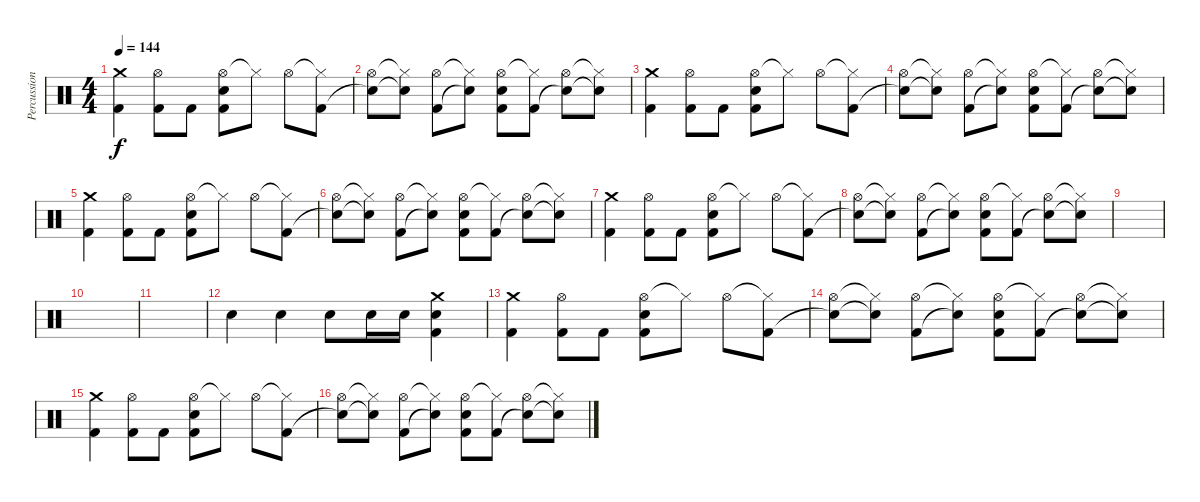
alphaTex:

\track ("Percussion" "Percussion") {instrument percussion}
\staff {score}
\articulation defaults
\ts (4 4)
\tempo 144
\clef neutral
\ks c
("Crash medium (hit)" "Kick (hit) 2").4{dy f} ("Hi-Hat (open)" "Kick (hit) 2").8 "Kick (hit) 2".8 ("Hi-Hat (open)" "Electric Snare (hit)" "Kick (hit) 2").8 "Hi-Hat (closed)"{t}.8 "Hi-Hat (open)".8 ("Hi-Hat (closed)"{t} "Kick (hit) 2").8 |
("Hi-Hat (open)" "Snare (hit)"{t}).8 ("Hi-Hat (closed)"{t} "Snare (hit)"{t}).8 ("Hi-Hat (open)" "Kick (hit) 2").8 ("Hi-Hat (closed)"{t} "Snare (hit)"{t}).8 ("Hi-Hat (open)" "Electric Snare (hit)" "Kick (hit) 2").8 ("Hi-Hat (closed)"{t} "Kick (hit) 2").8 ("Hi-Hat (open)" "Snare (hit)"{t}).8 ("Hi-Hat (closed)"{t} "Snare (hit)"{t}).8 |
("Crash medium (hit)" "Kick (hit) 2").4 ("Hi-Hat (open)" "Kick (hit) 2").8 "Kick (hit) 2".8 ("Hi-Hat (open)" "Electric Snare (hit)" "Kick (hit) 2").8 "Hi-Hat (closed)"{t}.8 "Hi-Hat (open)".8 ("Hi-Hat (closed)"{t} "Kick (hit) 2").8 |
("Hi-Hat (open)" "Snare (hit)"{t}).8 ("Hi-Hat (closed)"{t} "Snare (hit)"{t}).8 ("Hi-Hat (open)" "Kick (hit) 2").8 ("Hi-Hat (closed)"{t} "Snare (hit)"{t}).8 ("Hi-Hat (open)" "Electric Snare (hit)" "Kick (hit) 2").8 ("Hi-Hat (closed)"{t} "Kick (hit) 2").8 ("Hi-Hat (open)" "Snare (hit)"{t}).8 ("Hi-Hat (closed)"{t} "Snare (hit)"{t}).8 |
("Crash medium (hit)" "Kick (hit) 2").4 ("Hi-Hat (open)" "Kick (hit) 2").8 "Kick (hit) 2".8 ("Hi-Hat (open)" "Electric Snare (hit)" "Kick (hit) 2").8 "Hi-Hat (closed)"{t}.8 "Hi-Hat (open)".8 ("Hi-Hat (closed)"{t} "Kick (hit) 2").8 |
("Hi-Hat (open)" "Snare (hit)"{t}).8 ("Hi-Hat (closed)"{t} "Snare (hit)"{t}).8 ("Hi-Hat (open)" "Kick (hit) 2").8 ("Hi-Hat (closed)"{t} "Snare (hit)"{t}).8 ("Hi-Hat (open)" "Electric Snare (hit)" "Kick (hit) 2").8 ("Hi-Hat (closed)"{t} "Kick (hit) 2").8 ("Hi-Hat (open)" "Snare (hit)"{t}).8 ("Hi-Hat (closed)"{t} "Snare (hit)"{t}).8 |
("Crash medium (hit)" "Kick (hit) 2").4 ("Hi-Hat (open)" "Kick (hit) 2").8 "Kick (hit) 2".8 ("Hi-Hat (open)" "Electric Snare (hit)" "Kick (hit) 2").8 "Hi-Hat (closed)"{t}.8 "Hi-Hat (open)".8 ("Hi-Hat (closed)"{t} "Kick (hit) 2").8 |
("Hi-Hat (open)" "Snare (hit)"{t}).8 ("Hi-Hat (closed)"{t} "Snare (hit)"{t}).8 ("Hi-Hat (open)" "Kick (hit) 2").8 ("Hi-Hat (closed)"{t} "Snare (hit)"{t}).8 ("Hi-Hat (open)" "Electric Snare (hit)" "Kick (hit) 2").8 ("Hi-Hat (closed)"{t} "Kick (hit) 2").8 ("Hi-Hat (open)" "Snare (hit)"{t}).8 ("Hi-Hat (closed)"{t} "Snare (hit)"{t}).8 |
|
|
|
"Electric Snare (hit)".4 "Electric Snare (hit)".4 "Electric Snare (hit)".8 "Electric Snare (hit)".16 "Electric Snare (hit)".16 ("Crash medium (hit)" "Electric Snare (hit)" "Kick (hit) 2").4 |
("Crash medium (hit)" "Kick (hit) 2").4 ("Hi-Hat (open)" "Kick (hit) 2").8 "Kick (hit) 2".8 ("Hi-Hat (open)" "Electric Snare (hit)" "Kick (hit) 2").8 "Hi-Hat (closed)"{t}.8 "Hi-Hat (open)".8 ("Hi-Hat (closed)"{t} "Kick (hit) 2").8 |
("Hi-Hat (open)" "Snare (hit)"{t}).8 ("Hi-Hat (closed)"{t} "Snare (hit)"{t}).8 ("Hi-Hat (open)" "Kick (hit) 2").8 ("Hi-Hat (closed)"{t} "Snare (hit)"{t}).8 ("Hi-Hat (open)" "Electric Snare (hit)" "Kick (hit) 2").8 ("Hi-Hat (closed)"{t} "Kick (hit) 2").8 ("Hi-Hat (open)" "Snare (hit)"{t}).8 ("Hi-Hat (closed)"{t} "Snare (hit)"{t}).8 |
("Crash medium (hit)" "Kick (hit) 2").4 ("Hi-Hat (open)" "Kick (hit) 2").8 "Kick (hit) 2".8 ("Hi-Hat (open)" "Electric Snare (hit)" "Kick (hit) 2").8 "Hi-Hat (closed)"{t}.8 "Hi-Hat (open)".8 ("Hi-Hat (closed)"{t} "Kick (hit) 2").8 |
("Hi-Hat (open)" "Snare (hit)"{t}).8 ("Hi-Hat (closed)"{t} "Snare (hit)"{t}).8 ("Hi-Hat (open)" "Kick (hit) 2").8 ("Hi-Hat (closed)"{t} "Snare (hit)"{t}).8 ("Hi-Hat (open)" "Electric Snare (hit)" "Kick (hit) 2").8 ("Hi-Hat (closed)"{t} "Kick (hit) 2").8 ("Hi-Hat (open)" "Snare (hit)"{t}).8 ("Hi-Hat (closed)"{t} "Snare (hit)"{t}).8
